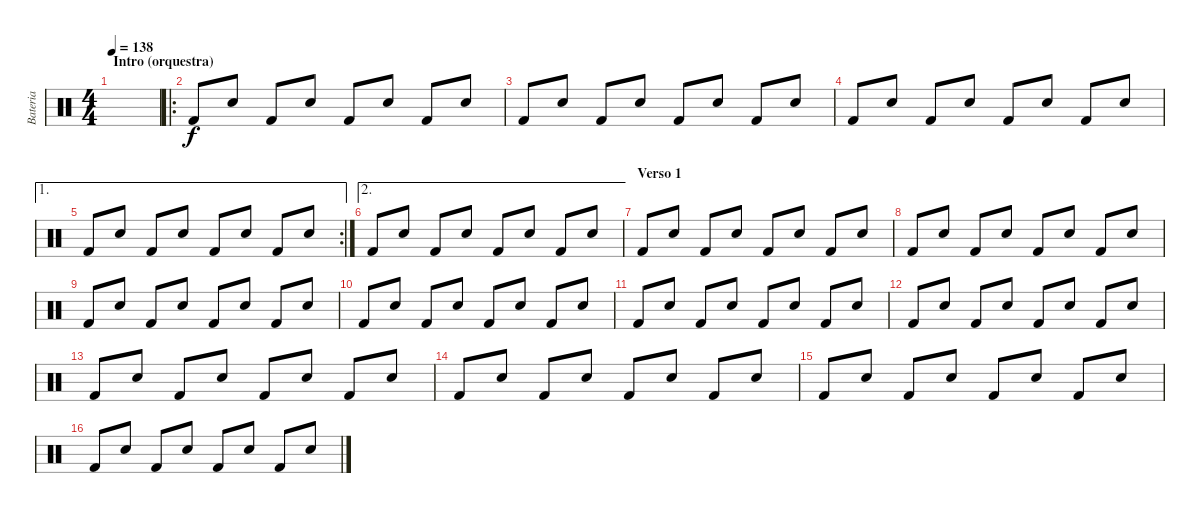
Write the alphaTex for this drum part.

\track ("Bateria" "Bateria") {instrument percussion}
\staff {score}
\articulation defaults
\ts (4 4)
\section ("" "Intro (orquestra)")
\tempo 138
\clef neutral
\ks c
|
\ro "Kick (hit) 2".8 "Snare (hit) 2".8 "Kick (hit) 2".8 "Snare (hit) 2".8 "Kick (hit) 2".8 "Snare (hit) 2".8 "Kick (hit) 2".8 "Snare (hit) 2".8
|
"Kick (hit) 2".8 "Snare (hit) 2".8 "Kick (hit) 2".8 "Snare (hit) 2".8 "Kick (hit) 2".8 "Snare (hit) 2".8 "Kick (hit) 2".8 "Snare (hit) 2".8 |
"Kick (hit) 2".8 "Snare (hit) 2".8 "Kick (hit) 2".8 "Snare (hit) 2".8 "Kick (hit) 2".8 "Snare (hit) 2".8 "Kick (hit) 2".8 "Snare (hit) 2".8 |
\ae 1
\rc 2 "Kick (hit) 2".8 "Snare (hit) 2".8 "Kick (hit) 2".8 "Snare (hit) 2".8 "Kick (hit) 2".8 "Snare (hit) 2".8 "Kick (hit) 2".8 "Snare (hit) 2".8
|
\ae 2 "Kick (hit) 2".8 "Snare (hit) 2".8 "Kick (hit) 2".8 "Snare (hit) 2".8 "Kick (hit) 2".8 "Snare (hit) 2".8 "Kick (hit) 2".8 "Snare (hit) 2".8
|
\section ("" "Verso 1")
"Kick (hit) 2".8 "Snare (hit) 2".8 "Kick (hit) 2".8 "Snare (hit) 2".8 "Kick (hit) 2".8 "Snare (hit) 2".8 "Kick (hit) 2".8 "Snare (hit) 2".8 |
"Kick (hit) 2".8 "Snare (hit) 2".8 "Kick (hit) 2".8 "Snare (hit) 2".8 "Kick (hit) 2".8 "Snare (hit) 2".8 "Kick (hit) 2".8 "Snare (hit) 2".8 |
"Kick (hit) 2".8 "Snare (hit) 2".8 "Kick (hit) 2".8 "Snare (hit) 2".8 "Kick (hit) 2".8 "Snare (hit) 2".8 "Kick (hit) 2".8 "Snare (hit) 2".8 |
"Kick (hit) 2".8 "Snare (hit) 2".8 "Kick (hit) 2".8 "Snare (hit) 2".8 "Kick (hit) 2".8 "Snare (hit) 2".8 "Kick (hit) 2".8 "Snare (hit) 2".8 |
"Kick (hit) 2".8 "Snare (hit) 2".8 "Kick (hit) 2".8 "Snare (hit) 2".8 "Kick (hit) 2".8 "Snare (hit) 2".8 "Kick (hit) 2".8 "Snare (hit) 2".8 |
"Kick (hit) 2".8 "Snare (hit) 2".8 "Kick (hit) 2".8 "Snare (hit) 2".8 "Kick (hit) 2".8 "Snare (hit) 2".8 "Kick (hit) 2".8 "Snare (hit) 2".8 |
"Kick (hit) 2".8 "Snare (hit) 2".8 "Kick (hit) 2".8 "Snare (hit) 2".8 "Kick (hit) 2".8 "Snare (hit) 2".8 "Kick (hit) 2".8 "Snare (hit) 2".8 |
"Kick (hit) 2".8 "Snare (hit) 2".8 "Kick (hit) 2".8 "Snare (hit) 2".8 "Kick (hit) 2".8 "Snare (hit) 2".8 "Kick (hit) 2".8 "Snare (hit) 2".8 |
"Kick (hit) 2".8 "Snare (hit) 2".8 "Kick (hit) 2".8 "Snare (hit) 2".8 "Kick (hit) 2".8 "Snare (hit) 2".8 "Kick (hit) 2".8 "Snare (hit) 2".8 |
"Kick (hit) 2".8 "Snare (hit) 2".8 "Kick (hit) 2".8 "Snare (hit) 2".8 "Kick (hit) 2".8 "Snare (hit) 2".8 "Kick (hit) 2".8 "Snare (hit) 2".8
